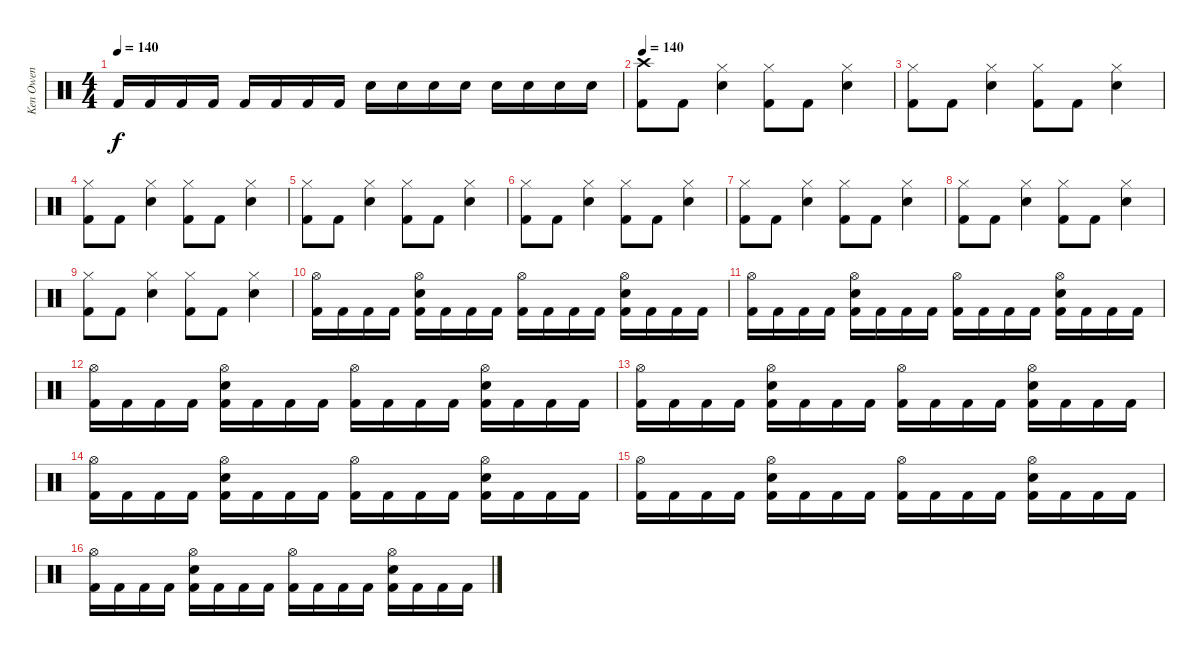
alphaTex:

\track ("Ken Owen" "Ken Owen") {instrument percussion}
\staff {score}
\articulation defaults
\ts (4 4)
\tempo 140
\clef neutral
\ks c "Kick (hit) 2".16{dy f} "Kick (hit) 2".16 "Kick (hit) 2".16 "Kick (hit) 2".16 "Kick (hit) 2".16 "Kick (hit) 2".16 "Kick (hit) 2".16 "Kick (hit) 2".16 "Snare (hit) 2".16 "Snare (hit) 2".16 "Snare (hit) 2".16 "Snare (hit) 2".16 "Snare (hit) 2".16 "Snare (hit) 2".16 "Snare (hit) 2".16 "Snare (hit) 2".16
|
\tempo 140
("Crash high (hit)" "Kick (hit) 2").8 "Kick (hit) 2".8 ("Hi-Hat (closed)" "Snare (hit) 2").4 ("Hi-Hat (closed)" "Kick (hit) 2").8 "Kick (hit) 2".8 ("Hi-Hat (closed)" "Snare (hit) 2").4 |
("Hi-Hat (closed)" "Kick (hit) 2").8 "Kick (hit) 2".8 ("Hi-Hat (closed)" "Snare (hit) 2").4 ("Hi-Hat (closed)" "Kick (hit) 2").8 "Kick (hit) 2".8 ("Hi-Hat (closed)" "Snare (hit) 2").4 |
("Hi-Hat (closed)" "Kick (hit) 2").8 "Kick (hit) 2".8 ("Hi-Hat (closed)" "Snare (hit) 2").4 ("Hi-Hat (closed)" "Kick (hit) 2").8 "Kick (hit) 2".8 ("Hi-Hat (closed)" "Snare (hit) 2").4 |
("Hi-Hat (closed)" "Kick (hit) 2").8 "Kick (hit) 2".8 ("Hi-Hat (closed)" "Snare (hit) 2").4 ("Hi-Hat (closed)" "Kick (hit) 2").8 "Kick (hit) 2".8 ("Hi-Hat (closed)" "Snare (hit) 2").4 |
("Hi-Hat (closed)" "Kick (hit) 2").8 "Kick (hit) 2".8 ("Hi-Hat (closed)" "Snare (hit) 2").4 ("Hi-Hat (closed)" "Kick (hit) 2").8 "Kick (hit) 2".8 ("Hi-Hat (closed)" "Snare (hit) 2").4 |
("Hi-Hat (closed)" "Kick (hit) 2").8 "Kick (hit) 2".8 ("Hi-Hat (closed)" "Snare (hit) 2").4 ("Hi-Hat (closed)" "Kick (hit) 2").8 "Kick (hit) 2".8 ("Hi-Hat (closed)" "Snare (hit) 2").4 |
("Hi-Hat (closed)" "Kick (hit) 2").8 "Kick (hit) 2".8 ("Hi-Hat (closed)" "Snare (hit) 2").4 ("Hi-Hat (closed)" "Kick (hit) 2").8 "Kick (hit) 2".8 ("Hi-Hat (closed)" "Snare (hit) 2").4 |
("Hi-Hat (closed)" "Kick (hit) 2").8 "Kick (hit) 2".8 ("Hi-Hat (closed)" "Snare (hit) 2").4 ("Hi-Hat (closed)" "Kick (hit) 2").8 "Kick (hit) 2".8 ("Hi-Hat (closed)" "Snare (hit) 2").4 |
("Hi-Hat (open)" "Kick (hit) 2").16 "Kick (hit) 2".16 "Kick (hit) 2".16 "Kick (hit) 2".16 ("Hi-Hat (open)" "Snare (hit) 2" "Kick (hit) 2").16 "Kick (hit) 2".16 "Kick (hit) 2".16 "Kick (hit) 2".16 ("Hi-Hat (open)" "Kick (hit) 2").16 "Kick (hit) 2".16 "Kick (hit) 2".16 "Kick (hit) 2".16 ("Hi-Hat (open)" "Snare (hit) 2" "Kick (hit) 2").16 "Kick (hit) 2".16 "Kick (hit) 2".16 "Kick (hit) 2".16 |
("Hi-Hat (open)" "Kick (hit) 2").16 "Kick (hit) 2".16 "Kick (hit) 2".16 "Kick (hit) 2".16 ("Hi-Hat (open)" "Snare (hit) 2" "Kick (hit) 2").16 "Kick (hit) 2".16 "Kick (hit) 2".16 "Kick (hit) 2".16 ("Hi-Hat (open)" "Kick (hit) 2").16 "Kick (hit) 2".16 "Kick (hit) 2".16 "Kick (hit) 2".16 ("Hi-Hat (open)" "Snare (hit) 2" "Kick (hit) 2").16 "Kick (hit) 2".16 "Kick (hit) 2".16 "Kick (hit) 2".16 |
("Hi-Hat (open)" "Kick (hit) 2").16 "Kick (hit) 2".16 "Kick (hit) 2".16 "Kick (hit) 2".16 ("Hi-Hat (open)" "Snare (hit) 2" "Kick (hit) 2").16 "Kick (hit) 2".16 "Kick (hit) 2".16 "Kick (hit) 2".16 ("Hi-Hat (open)" "Kick (hit) 2").16 "Kick (hit) 2".16 "Kick (hit) 2".16 "Kick (hit) 2".16 ("Hi-Hat (open)" "Snare (hit) 2" "Kick (hit) 2").16 "Kick (hit) 2".16 "Kick (hit) 2".16 "Kick (hit) 2".16 |
("Hi-Hat (open)" "Kick (hit) 2").16 "Kick (hit) 2".16 "Kick (hit) 2".16 "Kick (hit) 2".16 ("Hi-Hat (open)" "Snare (hit) 2" "Kick (hit) 2").16 "Kick (hit) 2".16 "Kick (hit) 2".16 "Kick (hit) 2".16 ("Hi-Hat (open)" "Kick (hit) 2").16 "Kick (hit) 2".16 "Kick (hit) 2".16 "Kick (hit) 2".16 ("Hi-Hat (open)" "Snare (hit) 2" "Kick (hit) 2").16 "Kick (hit) 2".16 "Kick (hit) 2".16 "Kick (hit) 2".16 |
("Hi-Hat (open)" "Kick (hit) 2").16 "Kick (hit) 2".16 "Kick (hit) 2".16 "Kick (hit) 2".16 ("Hi-Hat (open)" "Snare (hit) 2" "Kick (hit) 2").16 "Kick (hit) 2".16 "Kick (hit) 2".16 "Kick (hit) 2".16 ("Hi-Hat (open)" "Kick (hit) 2").16 "Kick (hit) 2".16 "Kick (hit) 2".16 "Kick (hit) 2".16 ("Hi-Hat (open)" "Snare (hit) 2" "Kick (hit) 2").16 "Kick (hit) 2".16 "Kick (hit) 2".16 "Kick (hit) 2".16 |
("Hi-Hat (open)" "Kick (hit) 2").16 "Kick (hit) 2".16 "Kick (hit) 2".16 "Kick (hit) 2".16 ("Hi-Hat (open)" "Snare (hit) 2" "Kick (hit) 2").16 "Kick (hit) 2".16 "Kick (hit) 2".16 "Kick (hit) 2".16 ("Hi-Hat (open)" "Kick (hit) 2").16 "Kick (hit) 2".16 "Kick (hit) 2".16 "Kick (hit) 2".16 ("Hi-Hat (open)" "Snare (hit) 2" "Kick (hit) 2").16 "Kick (hit) 2".16 "Kick (hit) 2".16 "Kick (hit) 2".16 |
("Hi-Hat (open)" "Kick (hit) 2").16 "Kick (hit) 2".16 "Kick (hit) 2".16 "Kick (hit) 2".16 ("Hi-Hat (open)" "Snare (hit) 2" "Kick (hit) 2").16 "Kick (hit) 2".16 "Kick (hit) 2".16 "Kick (hit) 2".16 ("Hi-Hat (open)" "Kick (hit) 2").16 "Kick (hit) 2".16 "Kick (hit) 2".16 "Kick (hit) 2".16 ("Hi-Hat (open)" "Snare (hit) 2" "Kick (hit) 2").16 "Kick (hit) 2".16 "Kick (hit) 2".16 "Kick (hit) 2".16
